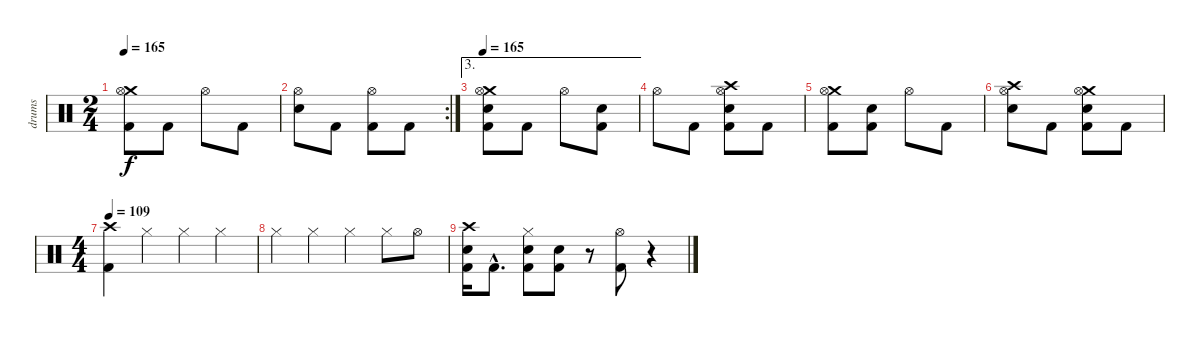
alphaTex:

\track ("drums" "drums") {instrument percussion}
\staff {score}
\articulation defaults
\ts (2 4)
\tempo 165
\clef neutral
\ks c
("Crash medium (hit)" "Hi-Hat (open)" "Kick (hit) 2").8{dy f} "Kick (hit) 2".8 "Hi-Hat (open)".8 "Kick (hit) 2".8 |
\rc 2
("Hi-Hat (open)" "Electric Snare (hit)").8 "Kick (hit) 2".8 ("Hi-Hat (open)" "Kick (hit) 2").8 "Kick (hit) 2".8 |
\ae 3
\tempo 165
("Crash medium (hit)" "Hi-Hat (open)" "Electric Snare (hit)" "Kick (hit) 2").8 "Kick (hit) 2".8 "Hi-Hat (open)".8 ("Electric Snare (hit)" "Kick (hit) 2").8 |
"Hi-Hat (open)".8 "Kick (hit) 2".8 ("Crash high (hit)" "Hi-Hat (open)" "Electric Snare (hit)" "Kick (hit) 2").8 "Kick (hit) 2".8 |
("Crash medium (hit)" "Hi-Hat (open)" "Kick (hit) 2").8 ("Electric Snare (hit)" "Kick (hit) 2").8 "Hi-Hat (open)".8 "Kick (hit) 2".8 |
("Crash high (hit)" "Hi-Hat (open)" "Electric Snare (hit)").8 "Kick (hit) 2".8 ("Crash medium (hit)" "Hi-Hat (open)" "Electric Snare (hit)" "Kick (hit) 2").8 "Kick (hit) 2".8 |
\ts (4 4)
\tempo 109
("Crash high (hit)" "Kick (hit) 2").4 "Hi-Hat (closed)".4 "Hi-Hat (closed)".4 "Hi-Hat (closed)".4 |
"Hi-Hat (closed)".4 "Hi-Hat (closed)".4 "Hi-Hat (closed)".4 "Hi-Hat (closed)".8 "Hi-Hat (open)".8 |
("Crash high (hit)" "Electric Snare (hit)" "Kick (hit) 2").16 "Kick (hit) 2"{hac}.8{d} ("Hi-Hat (closed)" "Electric Snare (hit)" "Kick (hit) 2").8 ("Electric Snare (hit)" "Kick (hit) 2").8 r.8 ("Hi-Hat (open)" "Kick (hit) 2").8 r.4
